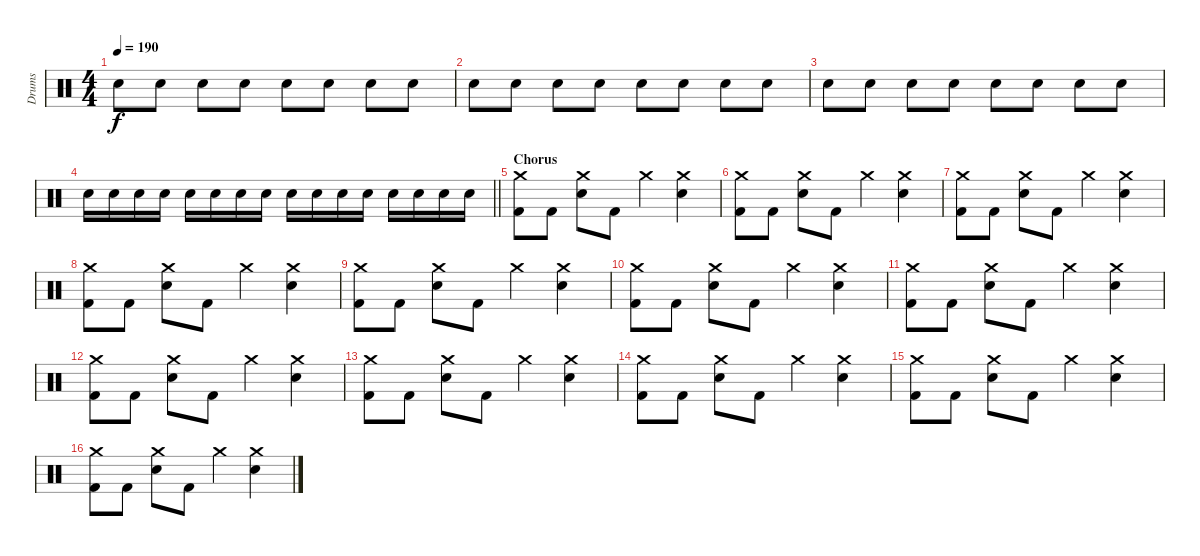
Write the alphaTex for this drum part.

\track ("Drums" "Drums") {instrument percussion}
\staff {score}
\articulation defaults
\ts (4 4)
\tempo 190
\clef neutral
\ks c "Electric Snare (hit)".8{dy f} "Electric Snare (hit)".8 "Electric Snare (hit)".8 "Electric Snare (hit)".8 "Electric Snare (hit)".8 "Electric Snare (hit)".8 "Electric Snare (hit)".8 "Electric Snare (hit)".8
|
"Electric Snare (hit)".8{volume 12} "Electric Snare (hit)".8 "Electric Snare (hit)".8 "Electric Snare (hit)".8 "Electric Snare (hit)".8 "Electric Snare (hit)".8 "Electric Snare (hit)".8 "Electric Snare (hit)".8 |
"Electric Snare (hit)".8 "Electric Snare (hit)".8 "Electric Snare (hit)".8 "Electric Snare (hit)".8 "Electric Snare (hit)".8 "Electric Snare (hit)".8 "Electric Snare (hit)".8 "Electric Snare (hit)".8 |
\barLineRight lightlight "Electric Snare (hit)".16 "Electric Snare (hit)".16 "Electric Snare (hit)".16 "Electric Snare (hit)".16 "Electric Snare (hit)".16 "Electric Snare (hit)".16 "Electric Snare (hit)".16 "Electric Snare (hit)".16 "Electric Snare (hit)".16 "Electric Snare (hit)".16 "Electric Snare (hit)".16 "Electric Snare (hit)".16 "Electric Snare (hit)".16 "Electric Snare (hit)".16 "Electric Snare (hit)".16 "Electric Snare (hit)".16
|
\section ("" "Chorus")
("Crash medium (hit)" "Kick (hit) 2").8 "Kick (hit) 2".8 ("Crash medium (hit)" "Electric Snare (hit)").8 "Kick (hit) 2".8 "Crash medium (hit)".4 ("Crash medium (hit)" "Electric Snare (hit)").4 |
("Crash medium (hit)" "Kick (hit) 2").8 "Kick (hit) 2".8 ("Crash medium (hit)" "Electric Snare (hit)").8 "Kick (hit) 2".8 "Crash medium (hit)".4 ("Crash medium (hit)" "Electric Snare (hit)").4 |
("Crash medium (hit)" "Kick (hit) 2").8 "Kick (hit) 2".8 ("Crash medium (hit)" "Electric Snare (hit)").8 "Kick (hit) 2".8 "Crash medium (hit)".4 ("Crash medium (hit)" "Electric Snare (hit)").4 |
("Crash medium (hit)" "Kick (hit) 2").8 "Kick (hit) 2".8 ("Crash medium (hit)" "Electric Snare (hit)").8 "Kick (hit) 2".8 "Crash medium (hit)".4 ("Crash medium (hit)" "Electric Snare (hit)").4 |
("Crash medium (hit)" "Kick (hit) 2").8 "Kick (hit) 2".8 ("Crash medium (hit)" "Electric Snare (hit)").8 "Kick (hit) 2".8 "Crash medium (hit)".4 ("Crash medium (hit)" "Electric Snare (hit)").4 |
("Crash medium (hit)" "Kick (hit) 2").8 "Kick (hit) 2".8 ("Crash medium (hit)" "Electric Snare (hit)").8 "Kick (hit) 2".8 "Crash medium (hit)".4 ("Crash medium (hit)" "Electric Snare (hit)").4 |
("Crash medium (hit)" "Kick (hit) 2").8 "Kick (hit) 2".8 ("Crash medium (hit)" "Electric Snare (hit)").8 "Kick (hit) 2".8 "Crash medium (hit)".4 ("Crash medium (hit)" "Electric Snare (hit)").4 |
("Crash medium (hit)" "Kick (hit) 2").8 "Kick (hit) 2".8 ("Crash medium (hit)" "Electric Snare (hit)").8 "Kick (hit) 2".8 "Crash medium (hit)".4 ("Crash medium (hit)" "Electric Snare (hit)").4 |
("Crash medium (hit)" "Kick (hit) 2").8 "Kick (hit) 2".8 ("Crash medium (hit)" "Electric Snare (hit)").8 "Kick (hit) 2".8 "Crash medium (hit)".4 ("Crash medium (hit)" "Electric Snare (hit)").4 |
("Crash medium (hit)" "Kick (hit) 2").8 "Kick (hit) 2".8 ("Crash medium (hit)" "Electric Snare (hit)").8 "Kick (hit) 2".8 "Crash medium (hit)".4 ("Crash medium (hit)" "Electric Snare (hit)").4 |
("Crash medium (hit)" "Kick (hit) 2").8 "Kick (hit) 2".8 ("Crash medium (hit)" "Electric Snare (hit)").8 "Kick (hit) 2".8 "Crash medium (hit)".4 ("Crash medium (hit)" "Electric Snare (hit)").4 |
("Crash medium (hit)" "Kick (hit) 2").8 "Kick (hit) 2".8 ("Crash medium (hit)" "Electric Snare (hit)").8 "Kick (hit) 2".8 "Crash medium (hit)".4 ("Crash medium (hit)" "Electric Snare (hit)").4
